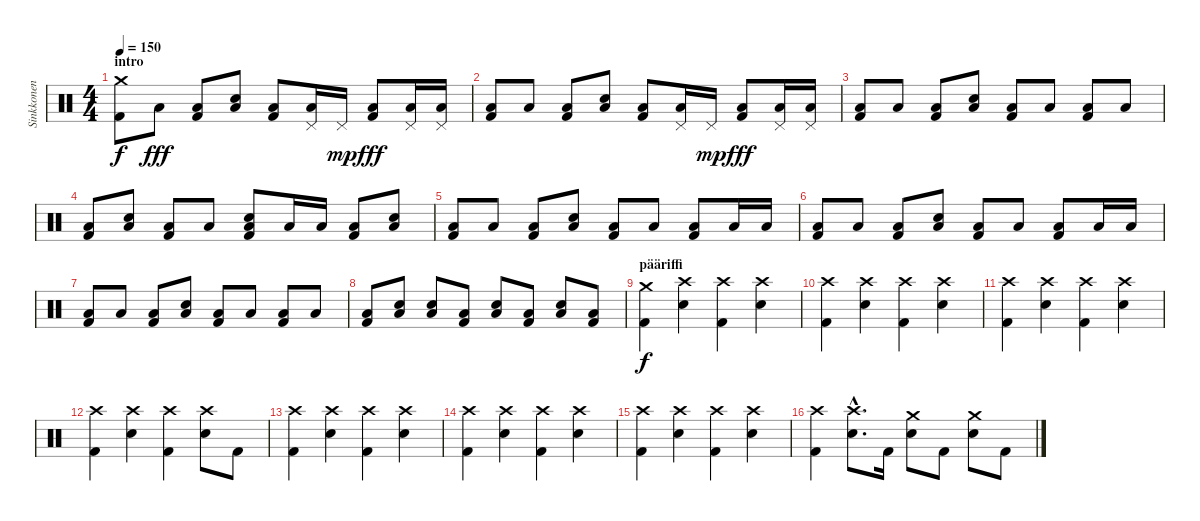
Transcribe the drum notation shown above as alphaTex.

\track ("Sinkkonen" "Sinkkonen") {instrument percussion}
\staff {score}
\articulation defaults
\ts (4 4)
\section ("" "intro")
\tempo 150
\clef neutral
\ks c
("Kick (hit) 2" "Crash medium (hit)").8{dy f} "Low Floor Tom (hit)".8{dy fff} ("Kick (hit) 2" "Low Floor Tom (hit)").8 ("Low Floor Tom (hit)" "Snare (hit) 2").8 ("Kick (hit) 2" "Low Floor Tom (hit)").8 ("Pedal Hi-Hat (hit)" "Low Floor Tom (hit)").16 "Pedal Hi-Hat (hit)".16{dy mp} ("Kick (hit) 2" "Low Floor Tom (hit)").8{dy fff} ("Pedal Hi-Hat (hit)" "Low Floor Tom (hit)").16 ("Pedal Hi-Hat (hit)" "Low Floor Tom (hit)").16 |
("Kick (hit) 2" "Low Floor Tom (hit)").8 "Low Floor Tom (hit)".8 ("Kick (hit) 2" "Low Floor Tom (hit)").8 ("Low Floor Tom (hit)" "Snare (hit) 2").8 ("Kick (hit) 2" "Low Floor Tom (hit)").8 ("Pedal Hi-Hat (hit)" "Low Floor Tom (hit)").16 "Pedal Hi-Hat (hit)".16{dy mp} ("Kick (hit) 2" "Low Floor Tom (hit)").8{dy fff} ("Pedal Hi-Hat (hit)" "Low Floor Tom (hit)").16 ("Pedal Hi-Hat (hit)" "Low Floor Tom (hit)").16 |
("Kick (hit) 2" "Low Floor Tom (hit)").8 "Low Floor Tom (hit)".8 ("Kick (hit) 2" "Low Floor Tom (hit)").8 ("Low Floor Tom (hit)" "Snare (hit) 2").8 ("Kick (hit) 2" "Low Floor Tom (hit)").8 "Low Floor Tom (hit)".8 ("Kick (hit) 2" "Low Floor Tom (hit)").8 "Low Floor Tom (hit)".8 |
("Kick (hit) 2" "Low Floor Tom (hit)").8 ("Low Floor Tom (hit)" "Snare (hit) 2").8 ("Kick (hit) 2" "Low Floor Tom (hit)").8 "Low Floor Tom (hit)".8 ("Kick (hit) 2" "Low Floor Tom (hit)" "Snare (hit) 2").8 "Low Floor Tom (hit)".16 "Low Floor Tom (hit)".16 ("Kick (hit) 2" "Low Floor Tom (hit)").8 ("Low Floor Tom (hit)" "Snare (hit) 2").8 |
("Kick (hit) 2" "Low Floor Tom (hit)").8 "Low Floor Tom (hit)".8 ("Kick (hit) 2" "Low Floor Tom (hit)").8 ("Low Floor Tom (hit)" "Snare (hit) 2").8 ("Kick (hit) 2" "Low Floor Tom (hit)").8 "Low Floor Tom (hit)".8 ("Kick (hit) 2" "Low Floor Tom (hit)").8 "Low Floor Tom (hit)".16 "Low Floor Tom (hit)".16 |
("Kick (hit) 2" "Low Floor Tom (hit)").8 "Low Floor Tom (hit)".8 ("Kick (hit) 2" "Low Floor Tom (hit)").8 ("Low Floor Tom (hit)" "Snare (hit) 2").8 ("Kick (hit) 2" "Low Floor Tom (hit)").8 "Low Floor Tom (hit)".8 ("Kick (hit) 2" "Low Floor Tom (hit)").8 "Low Floor Tom (hit)".16 "Low Floor Tom (hit)".16 |
("Kick (hit) 2" "Low Floor Tom (hit)").8 "Low Floor Tom (hit)".8 ("Kick (hit) 2" "Low Floor Tom (hit)").8 ("Low Floor Tom (hit)" "Snare (hit) 2").8 ("Kick (hit) 2" "Low Floor Tom (hit)").8 "Low Floor Tom (hit)".8 ("Kick (hit) 2" "Low Floor Tom (hit)").8 "Low Floor Tom (hit)".8 |
("Kick (hit) 2" "Low Floor Tom (hit)").8 ("Low Floor Tom (hit)" "Snare (hit) 2").8 ("Low Floor Tom (hit)" "Snare (hit) 2").8 ("Kick (hit) 2" "Low Floor Tom (hit)").8 ("Low Floor Tom (hit)" "Snare (hit) 2").8 ("Kick (hit) 2" "Low Floor Tom (hit)").8 ("Low Floor Tom (hit)" "Snare (hit) 2").8 ("Kick (hit) 2" "Low Floor Tom (hit)").8 |
\section ("" "pääriffi")
("Kick (hit) 2" "Crash medium (hit)").4{dy f} ("Crash high (hit)" "Snare (hit) 2").4 ("Kick (hit) 2" "Crash high (hit)").4 ("Crash high (hit)" "Snare (hit) 2").4 |
("Kick (hit) 2" "Crash high (hit)").4 ("Crash high (hit)" "Snare (hit) 2").4 ("Kick (hit) 2" "Crash high (hit)").4 ("Crash high (hit)" "Snare (hit) 2").4 |
("Kick (hit) 2" "Crash high (hit)").4 ("Crash high (hit)" "Snare (hit) 2").4 ("Kick (hit) 2" "Crash high (hit)").4 ("Crash high (hit)" "Snare (hit) 2").4 |
("Kick (hit) 2" "Crash high (hit)").4 ("Crash high (hit)" "Snare (hit) 2").4 ("Kick (hit) 2" "Crash high (hit)").4 ("Crash high (hit)" "Snare (hit) 2").8 "Kick (hit) 2".8 |
("Kick (hit) 2" "Crash high (hit)").4 ("Crash high (hit)" "Snare (hit) 2").4 ("Kick (hit) 2" "Crash high (hit)").4 ("Crash high (hit)" "Snare (hit) 2").4 |
("Kick (hit) 2" "Crash high (hit)").4 ("Crash high (hit)" "Snare (hit) 2").4 ("Kick (hit) 2" "Crash high (hit)").4 ("Crash high (hit)" "Snare (hit) 2").4 |
("Kick (hit) 2" "Crash high (hit)").4 ("Crash high (hit)" "Snare (hit) 2").4 ("Kick (hit) 2" "Crash high (hit)").4 ("Crash high (hit)" "Snare (hit) 2").4 |
("Kick (hit) 2" "Crash high (hit)").4 ("Crash high (hit)"{hac} "Snare (hit) 2"{hac}).8{d} "Kick (hit) 2".16 ("Crash medium (hit)" "Snare (hit) 2").8 "Kick (hit) 2".8 ("Crash medium (hit)" "Snare (hit) 2").8 "Kick (hit) 2".8
